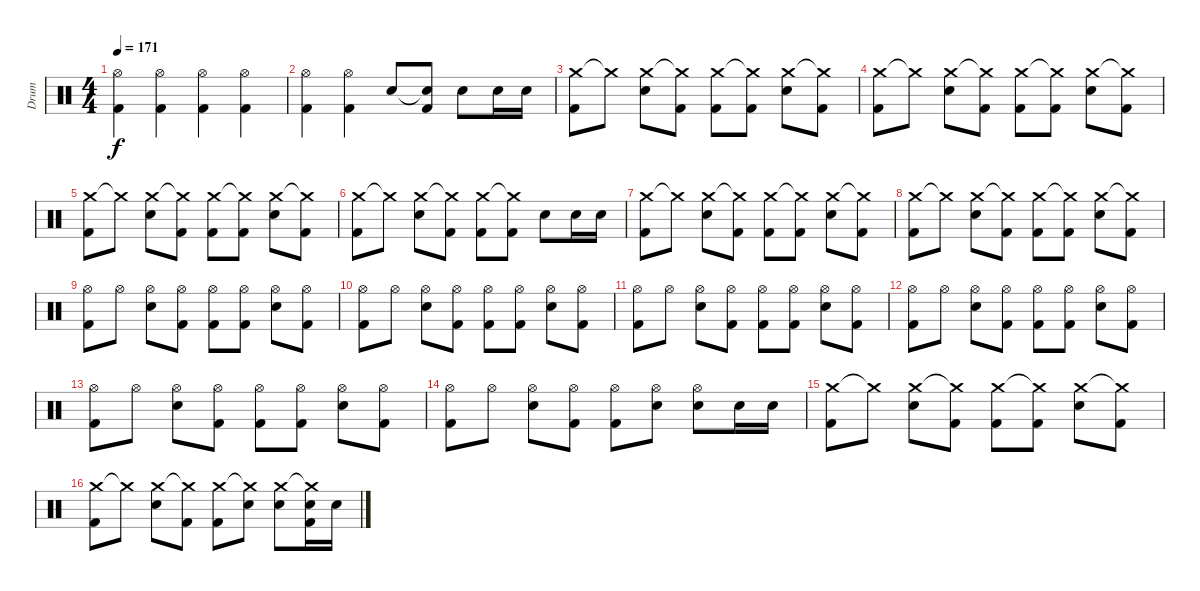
\track ("Drum" "Drum") {instrument percussion}
\staff {score}
\articulation defaults
\ts (4 4)
\tempo 171
\clef neutral
\ks c
("Hi-Hat (open)" "Kick (hit) 2").4{dy f} ("Hi-Hat (open)" "Kick (hit) 2").4 ("Hi-Hat (open)" "Kick (hit) 2").4 ("Hi-Hat (open)" "Kick (hit) 2").4 |
("Hi-Hat (open)" "Kick (hit) 2").4 ("Hi-Hat (open)" "Kick (hit) 2").4 "Electric Snare (hit)".8 ("Electric Snare (hit)"{t} "Kick (hit) 2").8 "Electric Snare (hit)".8 "Electric Snare (hit)".16 "Electric Snare (hit)".16 |
("Crash medium (hit)" "Kick (hit) 2").8 "Crash medium (hit)"{t}.8 ("Crash medium (hit)" "Electric Snare (hit)").8 ("Crash medium (hit)"{t} "Kick (hit) 2").8 ("Crash medium (hit)" "Kick (hit) 2").8 ("Crash medium (hit)"{t} "Kick (hit) 2").8 ("Crash medium (hit)" "Electric Snare (hit)").8 ("Crash medium (hit)"{t} "Kick (hit) 2").8 |
("Crash medium (hit)" "Kick (hit) 2").8 "Crash medium (hit)"{t}.8 ("Crash medium (hit)" "Electric Snare (hit)").8 ("Crash medium (hit)"{t} "Kick (hit) 2").8 ("Crash medium (hit)" "Kick (hit) 2").8 ("Crash medium (hit)"{t} "Kick (hit) 2").8 ("Crash medium (hit)" "Electric Snare (hit)").8 ("Crash medium (hit)"{t} "Kick (hit) 2").8 |
("Crash medium (hit)" "Kick (hit) 2").8 "Crash medium (hit)"{t}.8 ("Crash medium (hit)" "Electric Snare (hit)").8 ("Crash medium (hit)"{t} "Kick (hit) 2").8 ("Crash medium (hit)" "Kick (hit) 2").8 ("Crash medium (hit)"{t} "Kick (hit) 2").8 ("Crash medium (hit)" "Electric Snare (hit)").8 ("Crash medium (hit)"{t} "Kick (hit) 2").8 |
("Crash medium (hit)" "Kick (hit) 2").8 "Crash medium (hit)"{t}.8 ("Crash medium (hit)" "Electric Snare (hit)").8 ("Crash medium (hit)"{t} "Kick (hit) 2").8 ("Crash medium (hit)" "Kick (hit) 2").8 ("Crash medium (hit)"{t} "Kick (hit) 2").8 "Electric Snare (hit)".8 "Electric Snare (hit)".16 "Electric Snare (hit)".16 |
("Crash medium (hit)" "Kick (hit) 2").8 "Crash medium (hit)"{t}.8 ("Crash medium (hit)" "Electric Snare (hit)").8 ("Crash medium (hit)"{t} "Kick (hit) 2").8 ("Crash medium (hit)" "Kick (hit) 2").8 ("Crash medium (hit)"{t} "Kick (hit) 2").8 ("Crash medium (hit)" "Electric Snare (hit)").8 ("Crash medium (hit)"{t} "Kick (hit) 2").8 |
("Crash medium (hit)" "Kick (hit) 2").8 "Crash medium (hit)"{t}.8 ("Crash medium (hit)" "Electric Snare (hit)").8 ("Crash medium (hit)"{t} "Kick (hit) 2").8 ("Crash medium (hit)" "Kick (hit) 2").8 ("Crash medium (hit)"{t} "Kick (hit) 2").8 ("Crash medium (hit)" "Electric Snare (hit)").8 ("Crash medium (hit)"{t} "Kick (hit) 2").8 |
("Hi-Hat (open)" "Kick (hit) 2").8 "Hi-Hat (open)".8 ("Hi-Hat (open)" "Electric Snare (hit)").8 ("Hi-Hat (open)" "Kick (hit) 2").8 ("Hi-Hat (open)" "Kick (hit) 2").8 ("Hi-Hat (open)" "Kick (hit) 2").8 ("Hi-Hat (open)" "Electric Snare (hit)").8 ("Hi-Hat (open)" "Kick (hit) 2").8 |
("Hi-Hat (open)" "Kick (hit) 2").8 "Hi-Hat (open)".8 ("Hi-Hat (open)" "Electric Snare (hit)").8 ("Hi-Hat (open)" "Kick (hit) 2").8 ("Hi-Hat (open)" "Kick (hit) 2").8 ("Hi-Hat (open)" "Kick (hit) 2").8 ("Hi-Hat (open)" "Electric Snare (hit)").8 ("Hi-Hat (open)" "Kick (hit) 2").8 |
("Hi-Hat (open)" "Kick (hit) 2").8 "Hi-Hat (open)".8 ("Hi-Hat (open)" "Electric Snare (hit)").8 ("Hi-Hat (open)" "Kick (hit) 2").8 ("Hi-Hat (open)" "Kick (hit) 2").8 ("Hi-Hat (open)" "Kick (hit) 2").8 ("Hi-Hat (open)" "Electric Snare (hit)").8 ("Hi-Hat (open)" "Kick (hit) 2").8 |
("Hi-Hat (open)" "Kick (hit) 2").8 "Hi-Hat (open)".8 ("Hi-Hat (open)" "Electric Snare (hit)").8 ("Hi-Hat (open)" "Kick (hit) 2").8 ("Hi-Hat (open)" "Kick (hit) 2").8 ("Hi-Hat (open)" "Kick (hit) 2").8 ("Hi-Hat (open)" "Electric Snare (hit)").8 ("Hi-Hat (open)" "Kick (hit) 2").8 |
("Hi-Hat (open)" "Kick (hit) 2").8 "Hi-Hat (open)".8 ("Hi-Hat (open)" "Electric Snare (hit)").8 ("Hi-Hat (open)" "Kick (hit) 2").8 ("Hi-Hat (open)" "Kick (hit) 2").8 ("Hi-Hat (open)" "Kick (hit) 2").8 ("Hi-Hat (open)" "Electric Snare (hit)").8 ("Hi-Hat (open)" "Kick (hit) 2").8 |
("Hi-Hat (open)" "Kick (hit) 2").8 "Hi-Hat (open)".8 ("Hi-Hat (open)" "Electric Snare (hit)").8 ("Hi-Hat (open)" "Kick (hit) 2").8 ("Hi-Hat (open)" "Kick (hit) 2").8 ("Hi-Hat (open)" "Electric Snare (hit)").8 ("Hi-Hat (open)" "Electric Snare (hit)").8 "Electric Snare (hit)".16 "Electric Snare (hit)".16 |
("Crash medium (hit)" "Kick (hit) 2").8 "Crash medium (hit)"{t}.8 ("Crash medium (hit)" "Electric Snare (hit)").8 ("Crash medium (hit)"{t} "Kick (hit) 2").8 ("Crash medium (hit)" "Kick (hit) 2").8 ("Crash medium (hit)"{t} "Kick (hit) 2").8 ("Crash medium (hit)" "Electric Snare (hit)").8 ("Crash medium (hit)"{t} "Kick (hit) 2").8 |
("Crash medium (hit)" "Kick (hit) 2").8 "Crash medium (hit)"{t}.8 ("Crash medium (hit)" "Electric Snare (hit)").8 ("Crash medium (hit)"{t} "Kick (hit) 2").8 ("Crash medium (hit)" "Kick (hit) 2").8 ("Crash medium (hit)"{t} "Electric Snare (hit)").8 ("Crash medium (hit)" "Electric Snare (hit)").8 ("Crash medium (hit)"{t} "Electric Snare (hit)" "Kick (hit) 2").16 "Electric Snare (hit)".16
